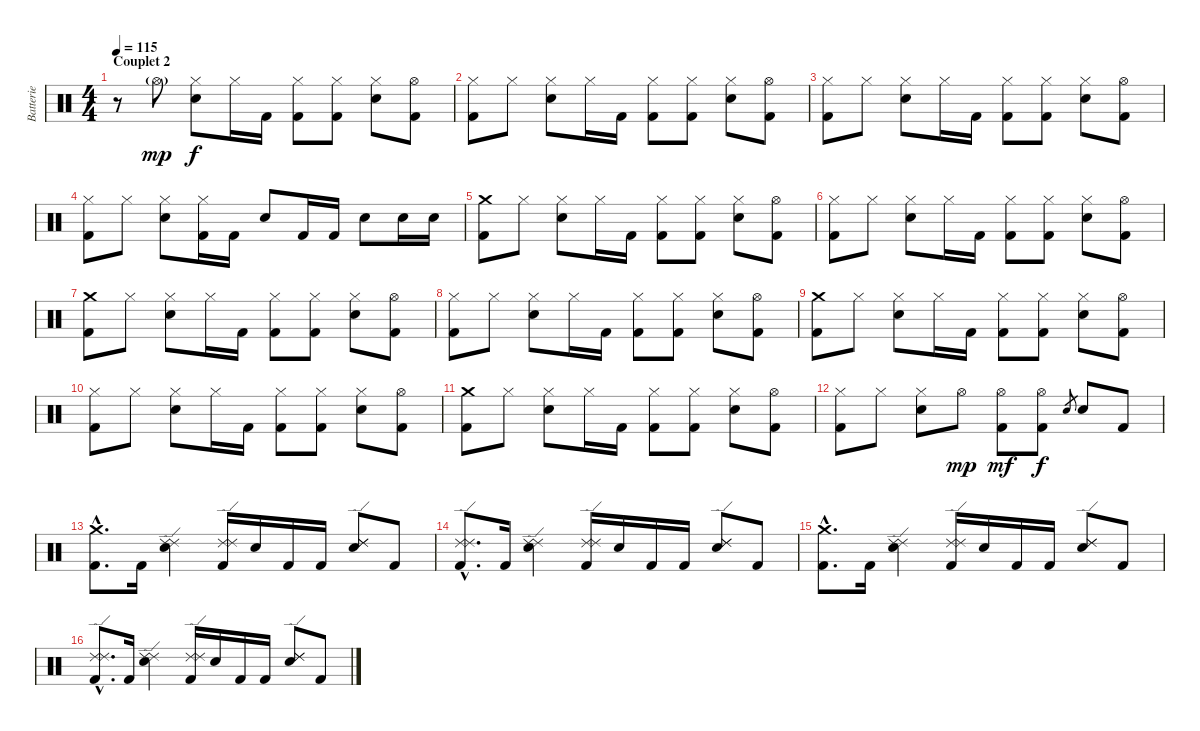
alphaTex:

\track ("Batterie" "Batterie") {instrument percussion}
\staff {score}
\articulation defaults
\ts (4 4)
\section ("" "Couplet 2")
\tempo 115
\clef neutral
\ks c
r.8{dy ff} "Hi-Hat (open)"{g}.8{dy mp} ("Hi-Hat (closed)" "Electric Snare (hit)").8{dy f} "Hi-Hat (closed)".16 "Kick (hit) 2".16 ("Hi-Hat (closed)" "Kick (hit) 2").8 ("Hi-Hat (closed)" "Kick (hit) 2").8 ("Hi-Hat (closed)" "Electric Snare (hit)").8 ("Hi-Hat (open)" "Kick (hit) 2").8 |
("Hi-Hat (closed)" "Kick (hit) 2").8 "Hi-Hat (closed)".8 ("Hi-Hat (closed)" "Electric Snare (hit)").8 "Hi-Hat (closed)".16 "Kick (hit) 2".16 ("Hi-Hat (closed)" "Kick (hit) 2").8 ("Hi-Hat (closed)" "Kick (hit) 2").8 ("Hi-Hat (closed)" "Electric Snare (hit)").8 ("Hi-Hat (open)" "Kick (hit) 2").8 |
("Hi-Hat (closed)" "Kick (hit) 2").8 "Hi-Hat (closed)".8 ("Hi-Hat (closed)" "Electric Snare (hit)").8 "Hi-Hat (closed)".16 "Kick (hit) 2".16 ("Hi-Hat (closed)" "Kick (hit) 2").8 ("Hi-Hat (closed)" "Kick (hit) 2").8 ("Hi-Hat (closed)" "Electric Snare (hit)").8 ("Hi-Hat (open)" "Kick (hit) 2").8 |
("Hi-Hat (closed)" "Kick (hit) 2").8 "Hi-Hat (closed)".8 ("Hi-Hat (closed)" "Electric Snare (hit)").8 ("Hi-Hat (closed)" "Kick (hit) 2").16 "Kick (hit) 2".16 "Electric Snare (hit)".8 "Kick (hit) 2".16 "Kick (hit) 2".16 "Electric Snare (hit)".8 "Electric Snare (hit)".16 "Electric Snare (hit)".16 |
("Crash medium (hit)" "Kick (hit) 2").8 "Hi-Hat (closed)".8 ("Hi-Hat (closed)" "Electric Snare (hit)").8 "Hi-Hat (closed)".16 "Kick (hit) 2".16 ("Hi-Hat (closed)" "Kick (hit) 2").8 ("Hi-Hat (closed)" "Kick (hit) 2").8 ("Hi-Hat (closed)" "Electric Snare (hit)").8 ("Hi-Hat (open)" "Kick (hit) 2").8 |
("Hi-Hat (closed)" "Kick (hit) 2").8 "Hi-Hat (closed)".8 ("Hi-Hat (closed)" "Electric Snare (hit)").8 "Hi-Hat (closed)".16 "Kick (hit) 2".16 ("Hi-Hat (closed)" "Kick (hit) 2").8 ("Hi-Hat (closed)" "Kick (hit) 2").8 ("Hi-Hat (closed)" "Electric Snare (hit)").8 ("Hi-Hat (open)" "Kick (hit) 2").8 |
("Crash medium (hit)" "Kick (hit) 2").8 "Hi-Hat (closed)".8 ("Hi-Hat (closed)" "Electric Snare (hit)").8 "Hi-Hat (closed)".16 "Kick (hit) 2".16 ("Hi-Hat (closed)" "Kick (hit) 2").8 ("Hi-Hat (closed)" "Kick (hit) 2").8 ("Hi-Hat (closed)" "Electric Snare (hit)").8 ("Hi-Hat (open)" "Kick (hit) 2").8 |
("Hi-Hat (closed)" "Kick (hit) 2").8 "Hi-Hat (closed)".8 ("Hi-Hat (closed)" "Electric Snare (hit)").8 "Hi-Hat (closed)".16 "Kick (hit) 2".16 ("Hi-Hat (closed)" "Kick (hit) 2").8 ("Hi-Hat (closed)" "Kick (hit) 2").8 ("Hi-Hat (closed)" "Electric Snare (hit)").8 ("Hi-Hat (open)" "Kick (hit) 2").8 |
("Crash medium (hit)" "Kick (hit) 2").8 "Hi-Hat (closed)".8 ("Hi-Hat (closed)" "Electric Snare (hit)").8 "Hi-Hat (closed)".16 "Kick (hit) 2".16 ("Hi-Hat (closed)" "Kick (hit) 2").8 ("Hi-Hat (closed)" "Kick (hit) 2").8 ("Hi-Hat (closed)" "Electric Snare (hit)").8 ("Hi-Hat (open)" "Kick (hit) 2").8 |
("Hi-Hat (closed)" "Kick (hit) 2").8 "Hi-Hat (closed)".8 ("Hi-Hat (closed)" "Electric Snare (hit)").8 "Hi-Hat (closed)".16 "Kick (hit) 2".16 ("Hi-Hat (closed)" "Kick (hit) 2").8 ("Hi-Hat (closed)" "Kick (hit) 2").8 ("Hi-Hat (closed)" "Electric Snare (hit)").8 ("Hi-Hat (open)" "Kick (hit) 2").8 |
("Crash medium (hit)" "Kick (hit) 2").8 "Hi-Hat (closed)".8 ("Hi-Hat (closed)" "Electric Snare (hit)").8 "Hi-Hat (closed)".16 "Kick (hit) 2".16 ("Hi-Hat (closed)" "Kick (hit) 2").8 ("Hi-Hat (closed)" "Kick (hit) 2").8 ("Hi-Hat (closed)" "Electric Snare (hit)").8 ("Hi-Hat (open)" "Kick (hit) 2").8 |
("Hi-Hat (closed)" "Kick (hit) 2").8 "Hi-Hat (closed)".8 ("Hi-Hat (closed)" "Electric Snare (hit)").8 "Hi-Hat (open)".8{dy mp} ("Hi-Hat (open)" "Kick (hit) 2").8{dy mf} ("Hi-Hat (open)" "Kick (hit) 2").8{dy f} "Electric Snare (hit)".8{gr} "Electric Snare (hit)".8 "Kick (hit) 2".8 |
("Crash medium (hit)"{hac} "Kick (hit) 2"{hac}).8{d} "Kick (hit) 2".16 ("Ride (edge) 2" "Ride (edge) 2" "Electric Snare (hit)").4 ("Ride (edge) 2" "Ride (edge) 2" "Kick (hit) 2").16 "Electric Snare (hit)".16 "Kick (hit) 2".16 "Kick (hit) 2".16 ("Ride (edge) 2" "Ride (edge) 2" "Electric Snare (hit)").8 "Kick (hit) 2".8 |
("Ride (edge) 2"{hac} "Ride (edge) 2"{hac} "Kick (hit) 2"{hac}).8{d} "Kick (hit) 2".16 ("Ride (edge) 2" "Ride (edge) 2" "Electric Snare (hit)").4 ("Ride (edge) 2" "Ride (edge) 2" "Kick (hit) 2").16 "Electric Snare (hit)".16 "Kick (hit) 2".16 "Kick (hit) 2".16 ("Ride (edge) 2" "Ride (edge) 2" "Electric Snare (hit)").8 "Kick (hit) 2".8 |
("Crash medium (hit)"{hac} "Kick (hit) 2"{hac}).8{d} "Kick (hit) 2".16 ("Ride (edge) 2" "Ride (edge) 2" "Electric Snare (hit)").4 ("Ride (edge) 2" "Ride (edge) 2" "Kick (hit) 2").16 "Electric Snare (hit)".16 "Kick (hit) 2".16 "Kick (hit) 2".16 ("Ride (edge) 2" "Ride (edge) 2" "Electric Snare (hit)").8 "Kick (hit) 2".8 |
("Ride (edge) 2"{hac} "Ride (edge) 2"{hac} "Kick (hit) 2"{hac}).8{d} "Kick (hit) 2".16 ("Ride (edge) 2" "Ride (edge) 2" "Electric Snare (hit)").4 ("Ride (edge) 2" "Ride (edge) 2" "Kick (hit) 2").16 "Electric Snare (hit)".16 "Kick (hit) 2".16 "Kick (hit) 2".16 ("Ride (edge) 2" "Ride (edge) 2" "Electric Snare (hit)").8 "Kick (hit) 2".8
